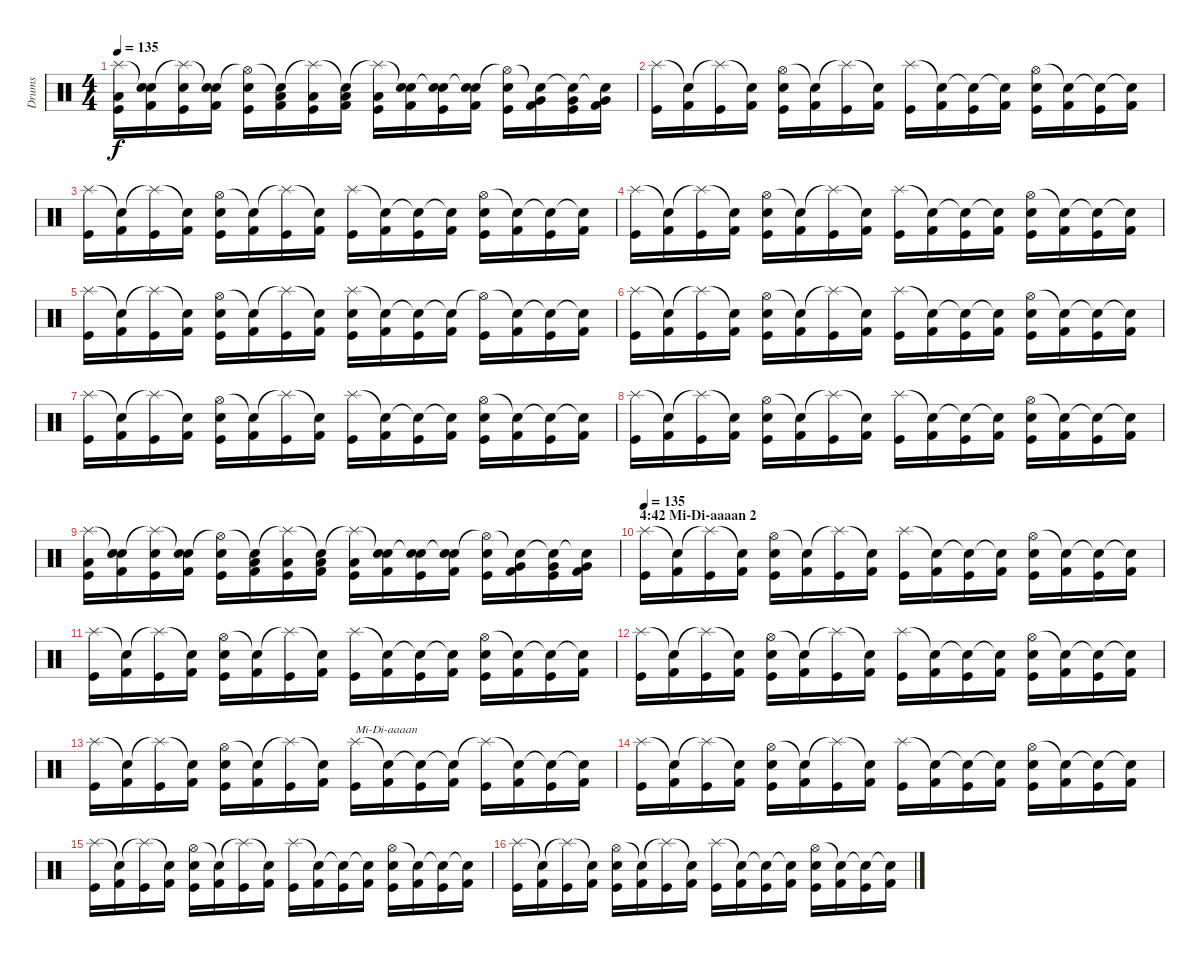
\track ("Drums" "Drums") {instrument percussion}
\staff {score}
\articulation defaults
\ts (4 4)
\tempo 135
\clef neutral
\ks c
("Splash (hit)" "Low Floor Tom (hit)" "Kick (hit)").16{dy f} ("Snare (hit)"{t} "Snare (hit) 2" "Kick (hit) 2").16 ("Splash (hit)"{t} "Snare (hit) 2" "Kick (hit)").16 ("Snare (hit)"{t} "Snare (hit) 2" "Kick (hit) 2").16 ("Hi-Hat (open)"{t} "Snare (hit) 2" "Kick (hit)").16 ("Snare (hit)"{t} "Low Tom (hit)" "Kick (hit) 2").16 ("Splash (hit)"{t} "Low Tom (hit)" "Kick (hit)").16 ("Snare (hit)"{t} "Low Tom (hit)" "Kick (hit) 2").16 ("Splash (hit)"{t} "Low Floor Tom (hit)" "Kick (hit)").16 ("Snare (hit)"{t} "Snare (hit) 2" "Kick (hit) 2").16 ("Snare (hit)"{t} "Snare (hit) 2" "Kick (hit)").16 ("Snare (hit)"{t} "Snare (hit) 2" "Kick (hit) 2").16 ("Hi-Hat (open)"{t} "Snare (hit) 2" "Kick (hit)").16 ("Snare (hit)"{t} "Very Low Tom (hit)" "Kick (hit) 2").16 ("Snare (hit)"{t} "Very Low Tom (hit)" "Kick (hit)").16 ("Snare (hit)"{t} "Very Low Tom (hit)" "Kick (hit) 2").16 |
("Splash (hit)" "Kick (hit)").16 ("Snare (hit)"{t} "Kick (hit) 2").16 ("Splash (hit)"{t} "Kick (hit)").16 ("Snare (hit)"{t} "Kick (hit) 2").16 ("Hi-Hat (open)" "Snare (hit) 2" "Kick (hit)").16 ("Snare (hit)"{t} "Kick (hit) 2").16 ("Splash (hit)"{t} "Kick (hit)").16 ("Snare (hit)"{t} "Kick (hit) 2").16 ("Splash (hit)" "Kick (hit)").16 ("Snare (hit)"{t} "Kick (hit) 2").16 ("Snare (hit)"{t} "Kick (hit)").16 ("Snare (hit)"{t} "Kick (hit) 2").16 ("Hi-Hat (open)" "Snare (hit) 2" "Kick (hit)").16 ("Snare (hit)"{t} "Kick (hit) 2").16 ("Snare (hit)"{t} "Kick (hit)").16 ("Snare (hit)"{t} "Kick (hit) 2").16 |
("Splash (hit)" "Kick (hit)").16 ("Snare (hit)"{t} "Kick (hit) 2").16 ("Splash (hit)"{t} "Kick (hit)").16 ("Snare (hit)"{t} "Kick (hit) 2").16 ("Hi-Hat (open)" "Snare (hit) 2" "Kick (hit)").16 ("Snare (hit)"{t} "Kick (hit) 2").16 ("Splash (hit)"{t} "Kick (hit)").16 ("Snare (hit)"{t} "Kick (hit) 2").16 ("Splash (hit)" "Kick (hit)").16 ("Snare (hit)"{t} "Kick (hit) 2").16 ("Snare (hit)"{t} "Kick (hit)").16 ("Snare (hit)"{t} "Kick (hit) 2").16 ("Hi-Hat (open)" "Snare (hit) 2" "Kick (hit)").16 ("Snare (hit)"{t} "Kick (hit) 2").16 ("Snare (hit)"{t} "Kick (hit)").16 ("Snare (hit)"{t} "Kick (hit) 2").16 |
("Splash (hit)" "Kick (hit)").16 ("Snare (hit)"{t} "Kick (hit) 2").16 ("Splash (hit)"{t} "Kick (hit)").16 ("Snare (hit)"{t} "Kick (hit) 2").16 ("Hi-Hat (open)" "Snare (hit) 2" "Kick (hit)").16 ("Snare (hit)"{t} "Kick (hit) 2").16 ("Splash (hit)"{t} "Kick (hit)").16 ("Snare (hit)"{t} "Kick (hit) 2").16 ("Splash (hit)" "Kick (hit)").16 ("Snare (hit)"{t} "Kick (hit) 2").16 ("Snare (hit)"{t} "Kick (hit)").16 ("Snare (hit)"{t} "Kick (hit) 2").16 ("Hi-Hat (open)" "Snare (hit) 2" "Kick (hit)").16 ("Snare (hit)"{t} "Kick (hit) 2").16 ("Snare (hit)"{t} "Kick (hit)").16 ("Snare (hit)"{t} "Kick (hit) 2").16 |
("Splash (hit)" "Kick (hit)").16 ("Snare (hit)"{t} "Kick (hit) 2").16 ("Splash (hit)"{t} "Kick (hit)").16 ("Snare (hit)"{t} "Kick (hit) 2").16 ("Hi-Hat (open)" "Snare (hit) 2" "Kick (hit)").16 ("Snare (hit)"{t} "Kick (hit) 2").16 ("Splash (hit)"{t} "Kick (hit)").16 ("Snare (hit)"{t} "Kick (hit) 2").16 ("Splash (hit)" "Snare (hit) 2" "Kick (hit)").16 ("Snare (hit)"{t} "Kick (hit) 2").16 ("Snare (hit)"{t} "Kick (hit)").16 ("Snare (hit)"{t} "Kick (hit) 2").16 ("Hi-Hat (open)"{t} "Kick (hit)").16 ("Snare (hit)"{t} "Kick (hit) 2").16 ("Snare (hit)"{t} "Kick (hit)").16 ("Snare (hit)"{t} "Kick (hit) 2").16 |
("Splash (hit)" "Kick (hit)").16 ("Snare (hit)"{t} "Kick (hit) 2").16 ("Splash (hit)"{t} "Kick (hit)").16 ("Snare (hit)"{t} "Kick (hit) 2").16 ("Hi-Hat (open)" "Snare (hit) 2" "Kick (hit)").16 ("Snare (hit)"{t} "Kick (hit) 2").16 ("Splash (hit)"{t} "Kick (hit)").16 ("Snare (hit)"{t} "Kick (hit) 2").16 ("Splash (hit)" "Kick (hit)").16 ("Snare (hit)"{t} "Kick (hit) 2").16 ("Snare (hit)"{t} "Kick (hit)").16 ("Snare (hit)"{t} "Kick (hit) 2").16 ("Hi-Hat (open)" "Snare (hit) 2" "Kick (hit)").16 ("Snare (hit)"{t} "Kick (hit) 2").16 ("Snare (hit)"{t} "Kick (hit)").16 ("Snare (hit)"{t} "Kick (hit) 2").16 |
("Splash (hit)" "Kick (hit)").16 ("Snare (hit)"{t} "Kick (hit) 2").16 ("Splash (hit)"{t} "Kick (hit)").16 ("Snare (hit)"{t} "Kick (hit) 2").16 ("Hi-Hat (open)" "Snare (hit) 2" "Kick (hit)").16 ("Snare (hit)"{t} "Kick (hit) 2").16 ("Splash (hit)"{t} "Kick (hit)").16 ("Snare (hit)"{t} "Kick (hit) 2").16 ("Splash (hit)" "Kick (hit)").16 ("Snare (hit)"{t} "Kick (hit) 2").16 ("Snare (hit)"{t} "Kick (hit)").16 ("Snare (hit)"{t} "Kick (hit) 2").16 ("Hi-Hat (open)" "Snare (hit) 2" "Kick (hit)").16 ("Snare (hit)"{t} "Kick (hit) 2").16 ("Snare (hit)"{t} "Kick (hit)").16 ("Snare (hit)"{t} "Kick (hit) 2").16 |
("Splash (hit)" "Kick (hit)").16 ("Snare (hit)"{t} "Kick (hit) 2").16 ("Splash (hit)"{t} "Kick (hit)").16 ("Snare (hit)"{t} "Kick (hit) 2").16 ("Hi-Hat (open)" "Snare (hit) 2" "Kick (hit)").16 ("Snare (hit)"{t} "Kick (hit) 2").16 ("Splash (hit)"{t} "Kick (hit)").16 ("Snare (hit)"{t} "Kick (hit) 2").16 ("Splash (hit)" "Kick (hit)").16 ("Snare (hit)"{t} "Kick (hit) 2").16 ("Snare (hit)"{t} "Kick (hit)").16 ("Snare (hit)"{t} "Kick (hit) 2").16 ("Hi-Hat (open)" "Snare (hit) 2" "Kick (hit)").16 ("Snare (hit)"{t} "Kick (hit) 2").16 ("Snare (hit)"{t} "Kick (hit)").16 ("Snare (hit)"{t} "Kick (hit) 2").16 |
("Splash (hit)" "Low Floor Tom (hit)" "Kick (hit)").16 ("Snare (hit)"{t} "Snare (hit) 2" "Kick (hit) 2").16 ("Splash (hit)"{t} "Snare (hit) 2" "Kick (hit)").16 ("Snare (hit)"{t} "Snare (hit) 2" "Kick (hit) 2").16 ("Hi-Hat (open)"{t} "Snare (hit) 2" "Kick (hit)").16 ("Snare (hit)"{t} "Low Tom (hit)" "Kick (hit) 2").16 ("Splash (hit)"{t} "Low Tom (hit)" "Kick (hit)").16 ("Snare (hit)"{t} "Low Tom (hit)" "Kick (hit) 2").16 ("Splash (hit)"{t} "Low Floor Tom (hit)" "Kick (hit)").16 ("Snare (hit)"{t} "Snare (hit) 2" "Kick (hit) 2").16 ("Snare (hit)"{t} "Snare (hit) 2" "Kick (hit)").16 ("Snare (hit)"{t} "Snare (hit) 2" "Kick (hit) 2").16 ("Hi-Hat (open)"{t} "Snare (hit) 2" "Kick (hit)").16 ("Snare (hit)"{t} "Very Low Tom (hit)" "Kick (hit) 2").16 ("Snare (hit)"{t} "Very Low Tom (hit)" "Kick (hit)").16 ("Snare (hit)"{t} "Very Low Tom (hit)" "Kick (hit) 2").16 |
\section ("" "4:42 Mi-Di-aaaan 2")
\tempo 135
("Splash (hit)" "Kick (hit)").16 ("Snare (hit)"{t} "Kick (hit) 2").16 ("Splash (hit)"{t} "Kick (hit)").16 ("Snare (hit)"{t} "Kick (hit) 2").16 ("Hi-Hat (open)" "Snare (hit) 2" "Kick (hit)").16 ("Snare (hit)"{t} "Kick (hit) 2").16 ("Splash (hit)"{t} "Kick (hit)").16 ("Snare (hit)"{t} "Kick (hit) 2").16 ("Splash (hit)" "Kick (hit)").16 ("Snare (hit)"{t} "Kick (hit) 2").16 ("Snare (hit)"{t} "Kick (hit)").16 ("Snare (hit)"{t} "Kick (hit) 2").16 ("Hi-Hat (open)" "Snare (hit) 2" "Kick (hit)").16 ("Snare (hit)"{t} "Kick (hit) 2").16 ("Snare (hit)"{t} "Kick (hit)").16 ("Snare (hit)"{t} "Kick (hit) 2").16 |
("Splash (hit)" "Kick (hit)").16 ("Snare (hit)"{t} "Kick (hit) 2").16 ("Splash (hit)"{t} "Kick (hit)").16 ("Snare (hit)"{t} "Kick (hit) 2").16 ("Hi-Hat (open)" "Snare (hit) 2" "Kick (hit)").16 ("Snare (hit)"{t} "Kick (hit) 2").16 ("Splash (hit)"{t} "Kick (hit)").16 ("Snare (hit)"{t} "Kick (hit) 2").16 ("Splash (hit)" "Kick (hit)").16 ("Snare (hit)"{t} "Kick (hit) 2").16 ("Snare (hit)"{t} "Kick (hit)").16 ("Snare (hit)"{t} "Kick (hit) 2").16 ("Hi-Hat (open)" "Snare (hit) 2" "Kick (hit)").16 ("Snare (hit)"{t} "Kick (hit) 2").16 ("Snare (hit)"{t} "Kick (hit)").16 ("Snare (hit)"{t} "Kick (hit) 2").16 |
("Splash (hit)" "Kick (hit)").16 ("Snare (hit)"{t} "Kick (hit) 2").16 ("Splash (hit)"{t} "Kick (hit)").16 ("Snare (hit)"{t} "Kick (hit) 2").16 ("Hi-Hat (open)" "Snare (hit) 2" "Kick (hit)").16 ("Snare (hit)"{t} "Kick (hit) 2").16 ("Splash (hit)"{t} "Kick (hit)").16 ("Snare (hit)"{t} "Kick (hit) 2").16 ("Splash (hit)" "Kick (hit)").16 ("Snare (hit)"{t} "Kick (hit) 2").16 ("Snare (hit)"{t} "Kick (hit)").16 ("Snare (hit)"{t} "Kick (hit) 2").16 ("Hi-Hat (open)" "Snare (hit) 2" "Kick (hit)").16 ("Snare (hit)"{t} "Kick (hit) 2").16 ("Snare (hit)"{t} "Kick (hit)").16 ("Snare (hit)"{t} "Kick (hit) 2").16 |
("Splash (hit)" "Kick (hit)").16 ("Snare (hit)"{t} "Kick (hit) 2").16 ("Splash (hit)"{t} "Kick (hit)").16 ("Snare (hit)"{t} "Kick (hit) 2").16 ("Hi-Hat (open)" "Snare (hit) 2" "Kick (hit)").16 ("Snare (hit)"{t} "Kick (hit) 2").16 ("Splash (hit)"{t} "Kick (hit)").16 ("Snare (hit)"{t} "Kick (hit) 2").16 ("Splash (hit)" "Kick (hit)").16{txt "Mi-Di-aaaan"} ("Snare (hit)"{t} "Kick (hit) 2").16 ("Snare (hit)"{t} "Kick (hit)").16 ("Snare (hit)"{t} "Kick (hit) 2").16 ("Splash (hit)"{t} "Kick (hit)").16 ("Snare (hit)"{t} "Kick (hit) 2").16 ("Snare (hit)"{t} "Kick (hit)").16 ("Snare (hit)"{t} "Kick (hit) 2").16 |
("Splash (hit)" "Kick (hit)").16 ("Snare (hit)"{t} "Kick (hit) 2").16 ("Splash (hit)"{t} "Kick (hit)").16 ("Snare (hit)"{t} "Kick (hit) 2").16 ("Hi-Hat (open)" "Snare (hit) 2" "Kick (hit)").16 ("Snare (hit)"{t} "Kick (hit) 2").16 ("Splash (hit)"{t} "Kick (hit)").16 ("Snare (hit)"{t} "Kick (hit) 2").16 ("Splash (hit)" "Kick (hit)").16 ("Snare (hit)"{t} "Kick (hit) 2").16 ("Snare (hit)"{t} "Kick (hit)").16 ("Snare (hit)"{t} "Kick (hit) 2").16 ("Hi-Hat (open)" "Snare (hit) 2" "Kick (hit)").16 ("Snare (hit)"{t} "Kick (hit) 2").16 ("Snare (hit)"{t} "Kick (hit)").16 ("Snare (hit)"{t} "Kick (hit) 2").16 |
("Splash (hit)" "Kick (hit)").16 ("Snare (hit)"{t} "Kick (hit) 2").16 ("Splash (hit)"{t} "Kick (hit)").16 ("Snare (hit)"{t} "Kick (hit) 2").16 ("Hi-Hat (open)" "Snare (hit) 2" "Kick (hit)").16 ("Snare (hit)"{t} "Kick (hit) 2").16 ("Splash (hit)"{t} "Kick (hit)").16 ("Snare (hit)"{t} "Kick (hit) 2").16 ("Splash (hit)" "Kick (hit)").16 ("Snare (hit)"{t} "Kick (hit) 2").16 ("Snare (hit)"{t} "Kick (hit)").16 ("Snare (hit)"{t} "Kick (hit) 2").16 ("Hi-Hat (open)" "Snare (hit) 2" "Kick (hit)").16 ("Snare (hit)"{t} "Kick (hit) 2").16 ("Snare (hit)"{t} "Kick (hit)").16 ("Snare (hit)"{t} "Kick (hit) 2").16 |
("Splash (hit)" "Kick (hit)").16 ("Snare (hit)"{t} "Kick (hit) 2").16 ("Splash (hit)"{t} "Kick (hit)").16 ("Snare (hit)"{t} "Kick (hit) 2").16 ("Hi-Hat (open)" "Snare (hit) 2" "Kick (hit)").16 ("Snare (hit)"{t} "Kick (hit) 2").16 ("Splash (hit)"{t} "Kick (hit)").16 ("Snare (hit)"{t} "Kick (hit) 2").16 ("Splash (hit)" "Kick (hit)").16 ("Snare (hit)"{t} "Kick (hit) 2").16 ("Snare (hit)"{t} "Kick (hit)").16 ("Snare (hit)"{t} "Kick (hit) 2").16 ("Hi-Hat (open)" "Snare (hit) 2" "Kick (hit)").16 ("Snare (hit)"{t} "Kick (hit) 2").16 ("Snare (hit)"{t} "Kick (hit)").16 ("Snare (hit)"{t} "Kick (hit) 2").16
